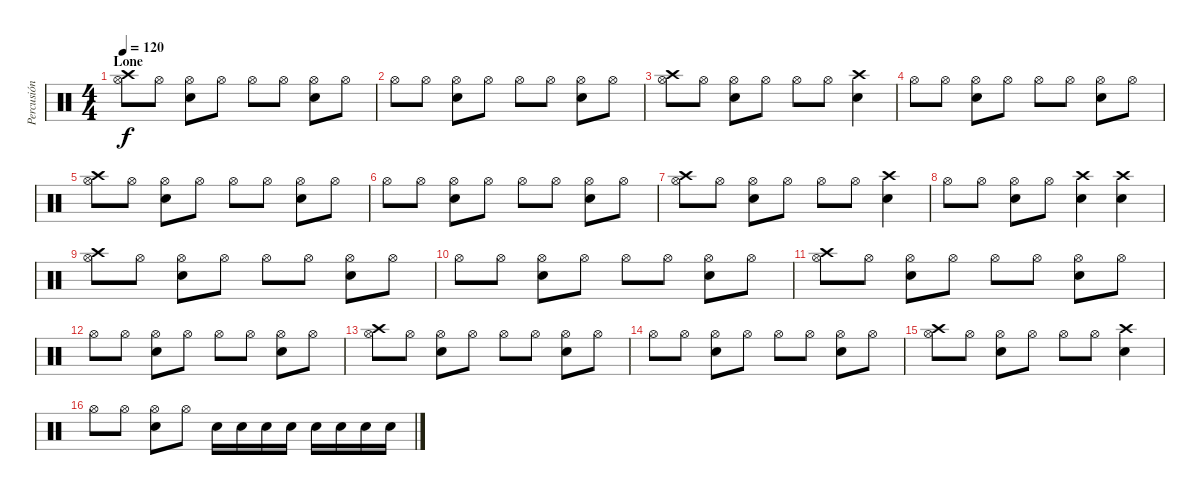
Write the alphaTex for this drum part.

\track ("Percusión" "Percusión") {instrument percussion}
\staff {score}
\articulation defaults
\ts (4 4)
\section ("" "Lone")
\tempo 120
\clef neutral
\ks c
("Hi-Hat (open)" "Crash high (hit)").8{dy f} "Hi-Hat (open)".8 ("Hi-Hat (open)" "Snare (hit) 2").8 "Hi-Hat (open)".8 "Hi-Hat (open)".8 "Hi-Hat (open)".8 ("Hi-Hat (open)" "Snare (hit) 2").8 "Hi-Hat (open)".8 |
"Hi-Hat (open)".8 "Hi-Hat (open)".8 ("Hi-Hat (open)" "Snare (hit) 2").8 "Hi-Hat (open)".8 "Hi-Hat (open)".8 "Hi-Hat (open)".8 ("Hi-Hat (open)" "Snare (hit) 2").8 "Hi-Hat (open)".8 |
("Hi-Hat (open)" "Crash high (hit)").8 "Hi-Hat (open)".8 ("Hi-Hat (open)" "Snare (hit) 2").8 "Hi-Hat (open)".8 "Hi-Hat (open)".8 "Hi-Hat (open)".8 ("Crash high (hit)" "Snare (hit) 2").4 |
"Hi-Hat (open)".8 "Hi-Hat (open)".8 ("Hi-Hat (open)" "Snare (hit) 2").8 "Hi-Hat (open)".8 "Hi-Hat (open)".8 "Hi-Hat (open)".8 ("Hi-Hat (open)" "Snare (hit) 2").8 "Hi-Hat (open)".8 |
("Hi-Hat (open)" "Crash high (hit)").8 "Hi-Hat (open)".8 ("Hi-Hat (open)" "Snare (hit) 2").8 "Hi-Hat (open)".8 "Hi-Hat (open)".8 "Hi-Hat (open)".8 ("Hi-Hat (open)" "Snare (hit) 2").8 "Hi-Hat (open)".8 |
"Hi-Hat (open)".8 "Hi-Hat (open)".8 ("Hi-Hat (open)" "Snare (hit) 2").8 "Hi-Hat (open)".8 "Hi-Hat (open)".8 "Hi-Hat (open)".8 ("Hi-Hat (open)" "Snare (hit) 2").8 "Hi-Hat (open)".8 |
("Hi-Hat (open)" "Crash high (hit)").8 "Hi-Hat (open)".8 ("Hi-Hat (open)" "Snare (hit) 2").8 "Hi-Hat (open)".8 "Hi-Hat (open)".8 "Hi-Hat (open)".8 ("Crash high (hit)" "Snare (hit) 2").4 |
"Hi-Hat (open)".8 "Hi-Hat (open)".8 ("Hi-Hat (open)" "Snare (hit) 2").8 "Hi-Hat (open)".8 ("Snare (hit) 2" "Crash high (hit)").4 ("Snare (hit) 2" "Crash high (hit)").4 |
("Hi-Hat (open)" "Crash high (hit)").8 "Hi-Hat (open)".8 ("Hi-Hat (open)" "Snare (hit) 2").8 "Hi-Hat (open)".8 "Hi-Hat (open)".8 "Hi-Hat (open)".8 ("Hi-Hat (open)" "Snare (hit) 2").8 "Hi-Hat (open)".8 |
"Hi-Hat (open)".8 "Hi-Hat (open)".8 ("Hi-Hat (open)" "Snare (hit) 2").8 "Hi-Hat (open)".8 "Hi-Hat (open)".8 "Hi-Hat (open)".8 ("Hi-Hat (open)" "Snare (hit) 2").8 "Hi-Hat (open)".8 |
("Hi-Hat (open)" "Crash high (hit)").8 "Hi-Hat (open)".8 ("Hi-Hat (open)" "Snare (hit) 2").8 "Hi-Hat (open)".8 "Hi-Hat (open)".8 "Hi-Hat (open)".8 ("Hi-Hat (open)" "Snare (hit) 2").8 "Hi-Hat (open)".8 |
"Hi-Hat (open)".8 "Hi-Hat (open)".8 ("Hi-Hat (open)" "Snare (hit) 2").8 "Hi-Hat (open)".8 "Hi-Hat (open)".8 "Hi-Hat (open)".8 ("Hi-Hat (open)" "Snare (hit) 2").8 "Hi-Hat (open)".8 |
("Hi-Hat (open)" "Crash high (hit)").8 "Hi-Hat (open)".8 ("Hi-Hat (open)" "Snare (hit) 2").8 "Hi-Hat (open)".8 "Hi-Hat (open)".8 "Hi-Hat (open)".8 ("Hi-Hat (open)" "Snare (hit) 2").8 "Hi-Hat (open)".8 |
"Hi-Hat (open)".8 "Hi-Hat (open)".8 ("Hi-Hat (open)" "Snare (hit) 2").8 "Hi-Hat (open)".8 "Hi-Hat (open)".8 "Hi-Hat (open)".8 ("Hi-Hat (open)" "Snare (hit) 2").8 "Hi-Hat (open)".8 |
("Hi-Hat (open)" "Crash high (hit)").8 "Hi-Hat (open)".8 ("Hi-Hat (open)" "Snare (hit) 2").8 "Hi-Hat (open)".8 "Hi-Hat (open)".8 "Hi-Hat (open)".8 ("Crash high (hit)" "Snare (hit) 2").4 |
"Hi-Hat (open)".8 "Hi-Hat (open)".8 ("Hi-Hat (open)" "Snare (hit) 2").8 "Hi-Hat (open)".8 "Snare (hit) 2".16 "Snare (hit) 2".16 "Snare (hit) 2".16 "Snare (hit) 2".16 "Snare (hit) 2".16 "Snare (hit) 2".16 "Snare (hit) 2".16 "Snare (hit) 2".16
